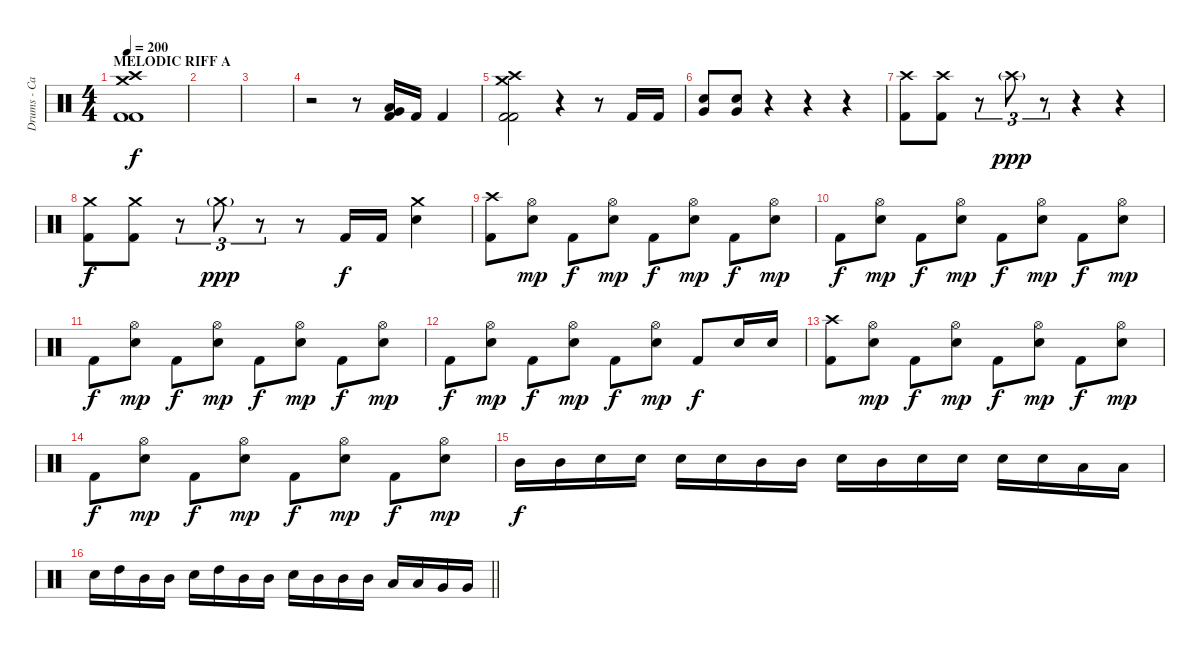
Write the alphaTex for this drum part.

\track ("Drums - Carlos Cruz" "Drums - Ca") {instrument percussion}
\staff {score}
\articulation defaults
\ts (4 4)
\section ("" "MELODIC RIFF A")
\tempo 200
\clef neutral
\ks c
("Crash medium (hit)" "Crash high (hit)" "Kick (hit) 2" "Kick (hit) 2").1{dy f} |
|
|
r.2 r.8 ("Very Low Tom (hit)" "Low Floor Tom (hit)" "Kick (hit) 2").16 "Kick (hit) 2".16 "Kick (hit) 2".4 |
("Crash medium (hit)" "Crash high (hit)" "Kick (hit) 2" "Kick (hit) 2").2 r.4 r.8 "Kick (hit) 2".16 "Kick (hit) 2".16 |
("Snare (hit) 2" "Very Low Tom (hit)").8 ("Snare (hit) 2" "Very Low Tom (hit)").8 r.4 r.4 r.4 |
("Crash high (hit)" "Kick (hit) 2").8 ("Crash high (hit)" "Kick (hit) 2").8 r.8{tu (3 2)} "Crash high (hit)"{g}.8{tu (3 2) dy ppp} r.8{tu (3 2)} r.4 r.4 |
("Crash medium (hit)" "Kick (hit) 2").8{dy f} ("Crash medium (hit)" "Kick (hit) 2").8 r.8{tu (3 2)} "Crash medium (hit)"{g}.8{tu (3 2) dy ppp} r.8{tu (3 2)} r.8 "Kick (hit) 2".16{dy f} "Kick (hit) 2".16 ("Crash medium (hit)" "Snare (hit) 2").4 |
("Crash high (hit)" "Kick (hit) 2").8 ("Hi-Hat (open)" "Snare (hit) 2").8{dy mp} "Kick (hit) 2".8{dy f} ("Hi-Hat (open)" "Snare (hit) 2").8{dy mp} "Kick (hit) 2".8{dy f} ("Hi-Hat (open)" "Snare (hit) 2").8{dy mp} "Kick (hit) 2".8{dy f} ("Hi-Hat (open)" "Snare (hit) 2").8{dy mp} |
"Kick (hit) 2".8{dy f} ("Hi-Hat (open)" "Snare (hit) 2").8{dy mp} "Kick (hit) 2".8{dy f} ("Hi-Hat (open)" "Snare (hit) 2").8{dy mp} "Kick (hit) 2".8{dy f} ("Hi-Hat (open)" "Snare (hit) 2").8{dy mp} "Kick (hit) 2".8{dy f} ("Hi-Hat (open)" "Snare (hit) 2").8{dy mp} |
"Kick (hit) 2".8{dy f} ("Hi-Hat (open)" "Snare (hit) 2").8{dy mp} "Kick (hit) 2".8{dy f} ("Hi-Hat (open)" "Snare (hit) 2").8{dy mp} "Kick (hit) 2".8{dy f} ("Hi-Hat (open)" "Snare (hit) 2").8{dy mp} "Kick (hit) 2".8{dy f} ("Hi-Hat (open)" "Snare (hit) 2").8{dy mp} |
"Kick (hit) 2".8{dy f} ("Hi-Hat (open)" "Snare (hit) 2").8{dy mp} "Kick (hit) 2".8{dy f} ("Hi-Hat (open)" "Snare (hit) 2").8{dy mp} "Kick (hit) 2".8{dy f} ("Hi-Hat (open)" "Snare (hit) 2").8{dy mp} "Kick (hit) 2".8{dy f} "Snare (hit) 2".16 "Snare (hit) 2".16 |
("Crash high (hit)" "Kick (hit) 2").8 ("Hi-Hat (open)" "Snare (hit) 2").8{dy mp} "Kick (hit) 2".8{dy f} ("Hi-Hat (open)" "Snare (hit) 2").8{dy mp} "Kick (hit) 2".8{dy f} ("Hi-Hat (open)" "Snare (hit) 2").8{dy mp} "Kick (hit) 2".8{dy f} ("Hi-Hat (open)" "Snare (hit) 2").8{dy mp} |
"Kick (hit) 2".8{dy f} ("Hi-Hat (open)" "Snare (hit) 2").8{dy mp} "Kick (hit) 2".8{dy f} ("Hi-Hat (open)" "Snare (hit) 2").8{dy mp} "Kick (hit) 2".8{dy f} ("Hi-Hat (open)" "Snare (hit) 2").8{dy mp} "Kick (hit) 2".8{dy f} ("Hi-Hat (open)" "Snare (hit) 2").8{dy mp} |
"Mid Tom (hit)".16{dy f} "Mid Tom (hit)".16 "Snare (hit) 2".16 "Snare (hit) 2".16 "Snare (hit) 2".16 "Snare (hit) 2".16 "Mid Tom (hit)".16 "Mid Tom (hit)".16 "Snare (hit) 2".16 "Mid Tom (hit)".16 "Snare (hit) 2".16 "Snare (hit) 2".16 "Snare (hit) 2".16 "Snare (hit) 2".16 "Low Tom (hit)".16 "Low Tom (hit)".16 |
\barLineRight lightlight "Snare (hit) 2".16 "High Tom (hit)".16 "Mid Tom (hit)".16 "Mid Tom (hit)".16 "Snare (hit) 2".16 "High Tom (hit)".16 "Mid Tom (hit)".16 "Mid Tom (hit)".16 "Snare (hit) 2".16 "Mid Tom (hit)".16 "Mid Tom (hit)".16 "Mid Tom (hit)".16 "Low Tom (hit)".16 "Low Tom (hit)".16 "Very Low Tom (hit)".16 "Very Low Tom (hit)".16
